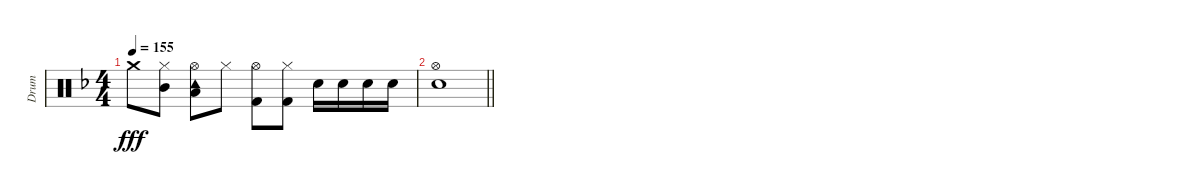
\track ("Drum" "Drum") {instrument percussion}
\staff {score}
\articulation defaults
\ts (4 4)
\tempo 155
\clef neutral
\ks f "Crash medium (hit)".8{dy fff}
("Hi-Hat (closed)" "Mid Tom (hit)").8 ("Hi-Hat (open)" "Low Tom (hit)" "Tambourine (hit)").8 "Hi-Hat (closed)".8 ("Hi-Hat (open)" "Kick (hit) 2").8 ("Hi-Hat (closed)" "Kick (hit) 2").8 "Electric Snare (hit)".16 "Electric Snare (hit)".16 "Electric Snare (hit)".16 "Electric Snare (hit)".16 |
\barLineRight lightlight
("Hi-Hat (open)" "Electric Snare (hit)").1
